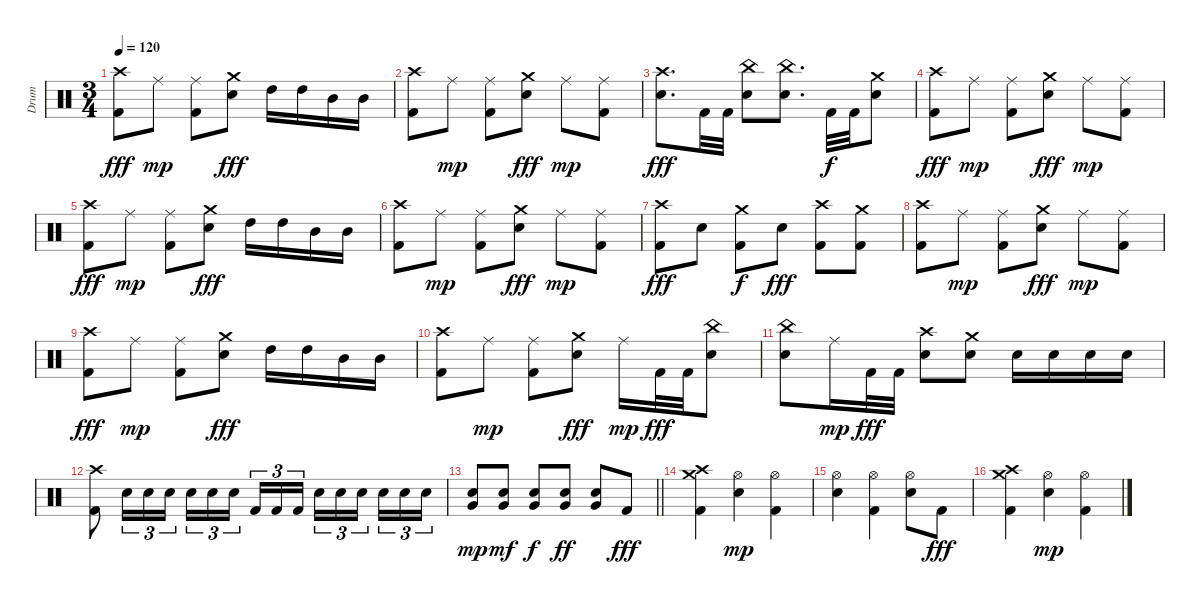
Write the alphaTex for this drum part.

\track ("Drum" "Drum") {instrument percussion}
\staff {score}
\articulation defaults
\ts (3 4)
\tempo 120
\clef neutral
\ks c
("Kick (hit) 2" "Crash high (hit)").8{dy fff} "Ride (middle)".8{dy mp} ("Kick (hit) 2" "Ride (middle)").8 ("Electric Snare (hit)" "Crash medium (hit)").8{dy fff} "High Tom (hit)".16 "High Tom (hit)".16 "Mid Tom (hit)".16 "Mid Tom (hit)".16 |
("Kick (hit) 2" "Crash high (hit)").8 "Ride (middle)".8{dy mp} ("Kick (hit) 2" "Ride (middle)").8 ("Electric Snare (hit)" "Crash medium (hit)").8{dy fff} "Ride (middle)".8{dy mp} ("Kick (hit) 2" "Ride (middle)").8 |
("Electric Snare (hit)" "Crash high (hit)").8{d dy fff} "Kick (hit) 2".32 "Kick (hit) 2".32 ("Electric Snare (hit)" "China (hit)").8 ("Electric Snare (hit)" "China (hit)").8{d} "Kick (hit) 2".32{dy f} "Kick (hit) 2".32 ("Electric Snare (hit)" "Crash medium (hit)").8 |
("Kick (hit) 2" "Crash high (hit)").8{dy fff} "Ride (middle)".8{dy mp} ("Kick (hit) 2" "Ride (middle)").8 ("Electric Snare (hit)" "Crash medium (hit)").8{dy fff} "Ride (middle)".8{dy mp} ("Kick (hit) 2" "Ride (middle)").8 |
("Kick (hit) 2" "Crash high (hit)").8{dy fff} "Ride (middle)".8{dy mp} ("Kick (hit) 2" "Ride (middle)").8 ("Electric Snare (hit)" "Crash medium (hit)").8{dy fff} "High Tom (hit)".16 "High Tom (hit)".16 "Mid Tom (hit)".16 "Mid Tom (hit)".16 |
("Kick (hit) 2" "Crash high (hit)").8 "Ride (middle)".8{dy mp} ("Kick (hit) 2" "Ride (middle)").8 ("Electric Snare (hit)" "Crash medium (hit)").8{dy fff} "Ride (middle)".8{dy mp} ("Kick (hit) 2" "Ride (middle)").8 |
("Kick (hit) 2" "Crash high (hit)").8{dy fff} "Electric Snare (hit)".8 ("Kick (hit) 2" "Crash medium (hit)").8{dy f} "Electric Snare (hit)".8{dy fff} ("Kick (hit) 2" "Crash high (hit)").8 ("Kick (hit) 2" "Crash medium (hit)").8 |
("Kick (hit) 2" "Crash high (hit)").8 "Ride (middle)".8{dy mp} ("Kick (hit) 2" "Ride (middle)").8 ("Electric Snare (hit)" "Crash medium (hit)").8{dy fff} "Ride (middle)".8{dy mp} ("Kick (hit) 2" "Ride (middle)").8 |
("Kick (hit) 2" "Crash high (hit)").8{dy fff} "Ride (middle)".8{dy mp} ("Kick (hit) 2" "Ride (middle)").8 ("Electric Snare (hit)" "Crash medium (hit)").8{dy fff} "High Tom (hit)".16 "High Tom (hit)".16 "Mid Tom (hit)".16 "Mid Tom (hit)".16 |
("Kick (hit) 2" "Crash high (hit)").8 "Ride (middle)".8{dy mp} ("Kick (hit) 2" "Ride (middle)").8 ("Electric Snare (hit)" "Crash medium (hit)").8{dy fff} "Ride (middle)".16{dy mp} "Kick (hit) 2".32{dy fff} "Kick (hit) 2".32 ("Electric Snare (hit)" "China (hit)").8 |
("Electric Snare (hit)" "China (hit)").8 "Ride (middle)".16{dy mp} "Kick (hit) 2".32{dy fff} "Kick (hit) 2".32 ("Electric Snare (hit)" "Crash high (hit)").8 ("Electric Snare (hit)" "Crash medium (hit)").8 "Electric Snare (hit)".16 "Electric Snare (hit)".16 "Electric Snare (hit)".16 "Electric Snare (hit)".16 |
("Kick (hit) 2" "Crash high (hit)").8 "Electric Snare (hit)".16{tu (3 2)} "Electric Snare (hit)".16{tu (3 2)} "Electric Snare (hit)".16{tu (3 2)} "Electric Snare (hit)".16{tu (3 2)} "Electric Snare (hit)".16{tu (3 2)} "Electric Snare (hit)".16{tu (3 2) beam splitsecondary} "Kick (hit) 2".16{tu (3 2)} "Kick (hit) 2".16{tu (3 2)} "Kick (hit) 2".16{tu (3 2)} "Electric Snare (hit)".16{tu (3 2)} "Electric Snare (hit)".16{tu (3 2)} "Electric Snare (hit)".16{tu (3 2) beam splitsecondary} "Electric Snare (hit)".16{tu (3 2)} "Electric Snare (hit)".16{tu (3 2)} "Electric Snare (hit)".16{tu (3 2)} |
\barLineRight lightlight
("Electric Snare (hit)" "Very Low Tom (hit)").8{dy mp} ("Electric Snare (hit)" "Very Low Tom (hit)").8{dy mf} ("Electric Snare (hit)" "Very Low Tom (hit)").8{dy f} ("Electric Snare (hit)" "Very Low Tom (hit)").8{dy ff} ("Electric Snare (hit)" "Very Low Tom (hit)").8 "Kick (hit) 2".8{dy fff} |
("Kick (hit) 2" "Crash high (hit)" "Crash medium (hit)").4 ("Electric Snare (hit)" "Hi-Hat (open)").4{dy mp} ("Kick (hit) 2" "Hi-Hat (open)").4 |
("Electric Snare (hit)" "Hi-Hat (open)").4 ("Kick (hit) 2" "Hi-Hat (open)").4 ("Electric Snare (hit)" "Hi-Hat (open)").8 "Kick (hit) 2".8{dy fff} |
("Kick (hit) 2" "Crash high (hit)" "Crash medium (hit)").4 ("Electric Snare (hit)" "Hi-Hat (open)").4{dy mp} ("Kick (hit) 2" "Hi-Hat (open)").4
